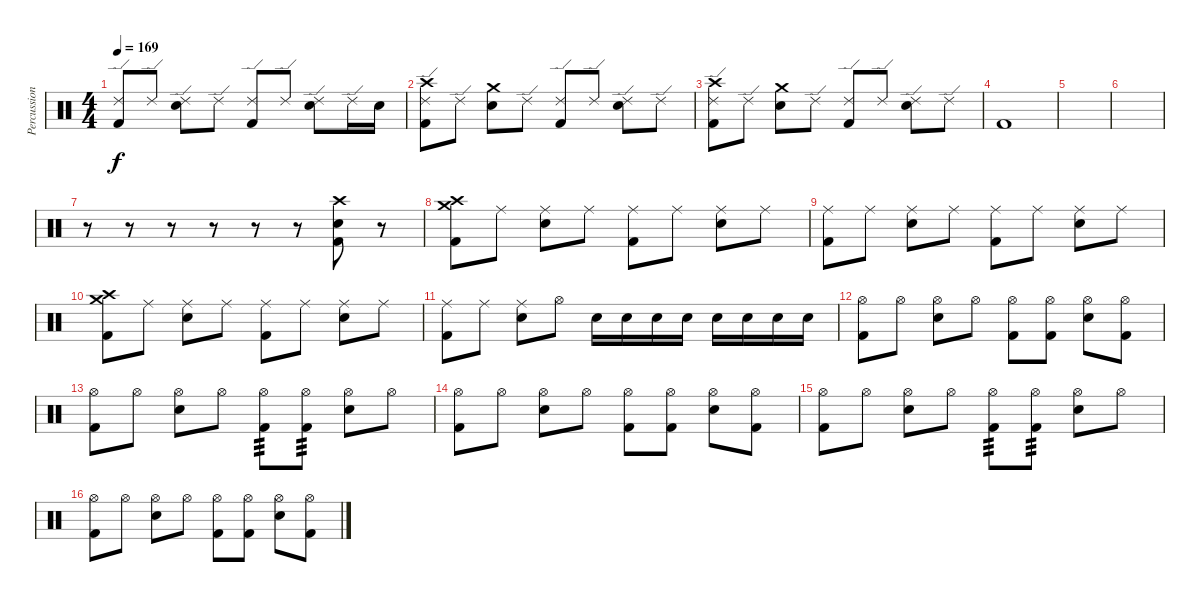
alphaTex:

\track ("Percussion" "Percussion") {instrument percussion}
\staff {score}
\articulation defaults
\ts (4 4)
\tempo 169
\clef neutral
\ks c
("Ride (edge) 2" "Kick (hit) 2").8{dy f} "Ride (edge) 2".8 ("Ride (edge) 2" "Electric Snare (hit)").8 "Ride (edge) 2".8 ("Ride (edge) 2" "Kick (hit) 2").8 "Ride (edge) 2".8 ("Ride (edge) 2" "Electric Snare (hit)").8 "Ride (edge) 2".16 "Electric Snare (hit)".16 |
("Ride (edge) 2" "Crash high (hit)" "Kick (hit) 2").8 "Ride (edge) 2".8 ("Crash medium (hit)" "Electric Snare (hit)").8 "Ride (edge) 2".8 ("Ride (edge) 2" "Kick (hit) 2").8 "Ride (edge) 2".8 ("Ride (edge) 2" "Electric Snare (hit)").8 "Ride (edge) 2".8 |
("Ride (edge) 2" "Crash high (hit)" "Kick (hit) 2").8 "Ride (edge) 2".8 ("Crash medium (hit)" "Electric Snare (hit)").8 "Ride (edge) 2".8 ("Ride (edge) 2" "Kick (hit) 2").8 "Ride (edge) 2".8 ("Ride (edge) 2" "Electric Snare (hit)").8 "Ride (edge) 2".8 |
"Kick (hit) 2".1 |
|
|
r.8 r.8 r.8 r.8 r.8 r.8 ("Crash high (hit)" "Electric Snare (hit)" "Kick (hit) 2").8 r.8 |
("Crash high (hit)" "Crash medium (hit)" "Kick (hit) 2").8 "Ride (middle)".8 ("Ride (middle)" "Electric Snare (hit)").8 "Ride (middle)".8 ("Ride (middle)" "Kick (hit) 2").8 "Ride (middle)".8 ("Ride (middle)" "Electric Snare (hit)").8 "Ride (middle)".8 |
("Ride (middle)" "Kick (hit) 2").8 "Ride (middle)".8 ("Ride (middle)" "Electric Snare (hit)").8 "Ride (middle)".8 ("Ride (middle)" "Kick (hit) 2").8 "Ride (middle)".8 ("Ride (middle)" "Electric Snare (hit)").8 "Ride (middle)".8 |
("Crash high (hit)" "Crash medium (hit)" "Kick (hit) 2").8 "Ride (middle)".8 ("Ride (middle)" "Electric Snare (hit)").8 "Ride (middle)".8 ("Ride (middle)" "Kick (hit) 2").8 "Ride (middle)".8 ("Ride (middle)" "Electric Snare (hit)").8 "Ride (middle)".8 |
("Ride (middle)" "Kick (hit) 2").8 "Ride (middle)".8 ("Ride (middle)" "Electric Snare (hit)").8 "Hi-Hat (open)".8 "Electric Snare (hit)".16 "Electric Snare (hit)".16 "Electric Snare (hit)".16 "Electric Snare (hit)".16 "Electric Snare (hit)".16 "Electric Snare (hit)".16 "Electric Snare (hit)".16 "Electric Snare (hit)".16 |
("Hi-Hat (open)" "Kick (hit) 2").8 "Hi-Hat (open)".8 ("Hi-Hat (open)" "Electric Snare (hit)").8 "Hi-Hat (open)".8 ("Hi-Hat (open)" "Kick (hit) 2").8 ("Hi-Hat (open)" "Kick (hit) 2").8 ("Hi-Hat (open)" "Electric Snare (hit)").8 ("Hi-Hat (open)" "Kick (hit) 2").8 |
("Hi-Hat (open)" "Kick (hit) 2").8 "Hi-Hat (open)".8 ("Hi-Hat (open)" "Electric Snare (hit)").8 "Hi-Hat (open)".8 ("Hi-Hat (open)" "Kick (hit) 2").8{tp 3} ("Hi-Hat (open)" "Kick (hit) 2").8{tp 3} ("Hi-Hat (open)" "Electric Snare (hit)").8 "Hi-Hat (open)".8 |
("Hi-Hat (open)" "Kick (hit) 2").8 "Hi-Hat (open)".8 ("Hi-Hat (open)" "Electric Snare (hit)").8 "Hi-Hat (open)".8 ("Hi-Hat (open)" "Kick (hit) 2").8 ("Hi-Hat (open)" "Kick (hit) 2").8 ("Hi-Hat (open)" "Electric Snare (hit)").8 ("Hi-Hat (open)" "Kick (hit) 2").8 |
("Hi-Hat (open)" "Kick (hit) 2").8 "Hi-Hat (open)".8 ("Hi-Hat (open)" "Electric Snare (hit)").8 "Hi-Hat (open)".8 ("Hi-Hat (open)" "Kick (hit) 2").8{tp 3} ("Hi-Hat (open)" "Kick (hit) 2").8{tp 3} ("Hi-Hat (open)" "Electric Snare (hit)").8 "Hi-Hat (open)".8 |
("Hi-Hat (open)" "Kick (hit) 2").8 "Hi-Hat (open)".8 ("Hi-Hat (open)" "Electric Snare (hit)").8 "Hi-Hat (open)".8 ("Hi-Hat (open)" "Kick (hit) 2").8 ("Hi-Hat (open)" "Kick (hit) 2").8 ("Hi-Hat (open)" "Electric Snare (hit)").8 ("Hi-Hat (open)" "Kick (hit) 2").8
